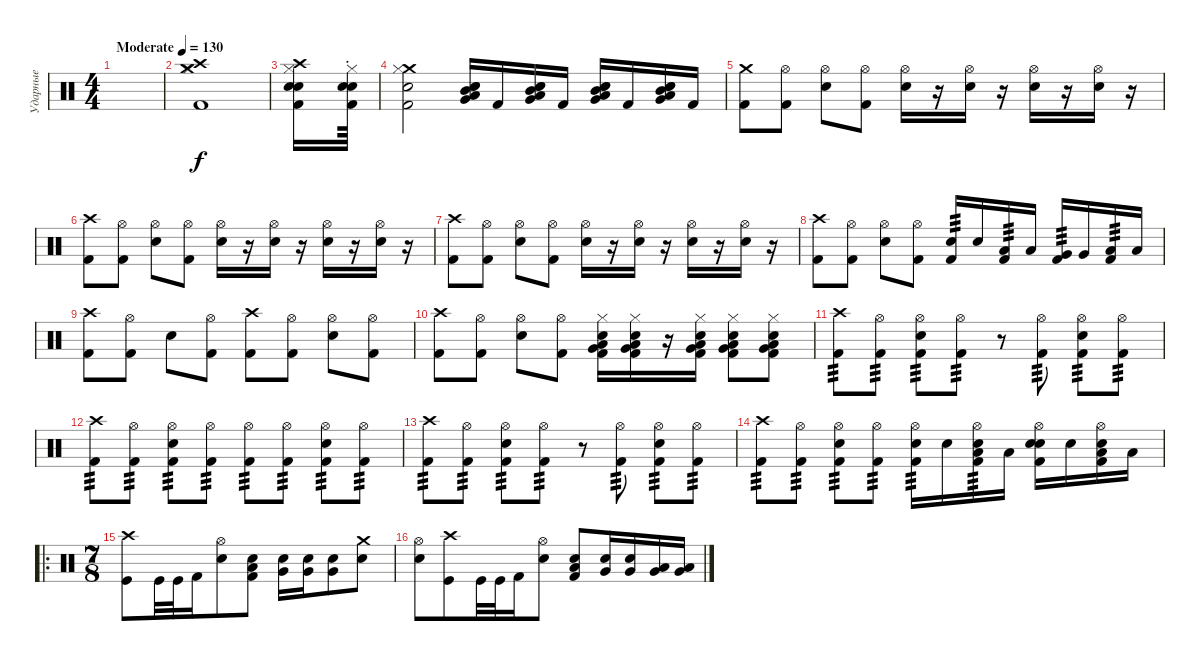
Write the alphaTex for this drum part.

\track ("Ударные" "Ударные") {instrument percussion}
\staff {score}
\articulation defaults
\ts (4 4)
\tempo (130 "Moderate")
\clef neutral
\ks c
|
("Crash medium (hit)" "Crash high (hit)" "Hi-Hat (closed)" "Kick (hit) 2").1 |
("Crash high (hit)" "Electric Snare (hit)" "Snare (hit) 2" "Hi-Hat (closed)" "Kick (hit) 2").16 ("Electric Snare (hit)"{st} "Snare (hit) 2"{st} "Hi-Hat (closed)"{st} "Kick (hit) 2"{st}).64 |
("Crash medium (hit)" "Snare (hit) 2" "Hi-Hat (closed)" "Kick (hit) 2").2 ("Low Floor Tom (hit)" "Very Low Tom (hit)" "Electric Snare (hit)" "Snare (hit) 2" "Mid Tom (hit)").16 "Kick (hit) 2".16 ("Low Floor Tom (hit)" "Very Low Tom (hit)" "Electric Snare (hit)" "Snare (hit) 2" "Mid Tom (hit)").16 "Kick (hit) 2".16 ("Low Floor Tom (hit)" "Very Low Tom (hit)" "Electric Snare (hit)" "Snare (hit) 2" "Mid Tom (hit)").16 "Kick (hit) 2".16 ("Low Floor Tom (hit)" "Very Low Tom (hit)" "Electric Snare (hit)" "Snare (hit) 2" "Mid Tom (hit)").16 "Kick (hit) 2".16 |
("Crash medium (hit)" "Kick (hit) 2").8 ("Hi-Hat (open)" "Kick (hit) 2").8 ("Hi-Hat (open)" "Snare (hit) 2").8 ("Hi-Hat (open)" "Kick (hit) 2").8 ("Hi-Hat (open)" "Snare (hit) 2").16 r.16 ("Hi-Hat (open)" "Snare (hit) 2").16 r.16 ("Hi-Hat (open)" "Snare (hit) 2").16 r.16 ("Hi-Hat (open)" "Snare (hit) 2").16 r.16 |
("Crash high (hit)" "Kick (hit) 2").8 ("Hi-Hat (open)" "Kick (hit) 2").8 ("Hi-Hat (open)" "Snare (hit) 2").8 ("Hi-Hat (open)" "Kick (hit) 2").8 ("Hi-Hat (open)" "Snare (hit) 2").16 r.16 ("Hi-Hat (open)" "Snare (hit) 2").16 r.16 ("Hi-Hat (open)" "Snare (hit) 2").16 r.16 ("Hi-Hat (open)" "Snare (hit) 2").16 r.16 |
("Crash high (hit)" "Kick (hit) 2").8 ("Hi-Hat (open)" "Kick (hit) 2").8 ("Hi-Hat (open)" "Snare (hit) 2").8 ("Hi-Hat (open)" "Kick (hit) 2").8 ("Hi-Hat (open)" "Snare (hit) 2").16 r.16 ("Hi-Hat (open)" "Snare (hit) 2").16 r.16 ("Hi-Hat (open)" "Snare (hit) 2").16 r.16 ("Hi-Hat (open)" "Snare (hit) 2").16 r.16 |
("Crash high (hit)" "Kick (hit) 2").8 ("Hi-Hat (open)" "Kick (hit) 2").8 ("Hi-Hat (open)" "Snare (hit) 2").8 ("Hi-Hat (open)" "Kick (hit) 2").8 ("Electric Snare (hit)" "Kick (hit) 2").16{tp 3} "Electric Snare (hit)".16 ("Low Tom (hit)" "Kick (hit) 2").16{tp 3} "Low Tom (hit)".16 ("Very Low Tom (hit)" "Kick (hit) 2").16{tp 3} "Very Low Tom (hit)".16 ("Low Floor Tom (hit)" "Kick (hit) 2").16{tp 3} "Low Floor Tom (hit)".16 |
("Crash high (hit)" "Kick (hit) 2").8 ("Hi-Hat (open)" "Kick (hit) 2").8 "Snare (hit) 2".8 ("Hi-Hat (open)" "Kick (hit) 2").8 ("Crash high (hit)" "Kick (hit) 2").8 ("Hi-Hat (open)" "Kick (hit) 2").8 ("Hi-Hat (open)" "Snare (hit) 2").8 ("Hi-Hat (open)" "Kick (hit) 2").8 |
("Crash high (hit)" "Kick (hit) 2").8 ("Hi-Hat (open)" "Kick (hit) 2").8 ("Hi-Hat (open)" "Snare (hit) 2").8 ("Hi-Hat (open)" "Kick (hit) 2").8 ("Very Low Tom (hit)" "Low Floor Tom (hit)" "Snare (hit) 2" "Hi-Hat (closed)" "Kick (hit) 2").16 ("Very Low Tom (hit)" "Low Floor Tom (hit)" "Snare (hit) 2" "Hi-Hat (closed)" "Kick (hit) 2").16 r.16 ("Very Low Tom (hit)" "Low Floor Tom (hit)" "Snare (hit) 2" "Hi-Hat (closed)" "Kick (hit) 2").16 ("Very Low Tom (hit)" "Low Floor Tom (hit)" "Snare (hit) 2" "Hi-Hat (closed)" "Kick (hit) 2").8 ("Very Low Tom (hit)" "Low Floor Tom (hit)" "Snare (hit) 2" "Hi-Hat (closed)" "Kick (hit) 2").8 |
("Crash high (hit)" "Kick (hit) 2").8{tp 3} ("Hi-Hat (open)" "Kick (hit) 2").8{tp 3} ("Hi-Hat (open)" "Snare (hit) 2" "Kick (hit) 2").8{tp 3} ("Hi-Hat (open)" "Kick (hit) 2").8{tp 3} r.8 ("Hi-Hat (open)" "Kick (hit) 2").8{tp 3} ("Hi-Hat (open)" "Snare (hit) 2" "Kick (hit) 2").8{tp 3} ("Hi-Hat (open)" "Kick (hit) 2").8{tp 3} |
("Crash high (hit)" "Kick (hit) 2").8{tp 3} ("Hi-Hat (open)" "Kick (hit) 2").8{tp 3} ("Hi-Hat (open)" "Snare (hit) 2" "Kick (hit) 2").8{tp 3} ("Hi-Hat (open)" "Kick (hit) 2").8{tp 3} ("Hi-Hat (open)" "Kick (hit) 2").8{tp 3} ("Hi-Hat (open)" "Kick (hit) 2").8{tp 3} ("Hi-Hat (open)" "Snare (hit) 2" "Kick (hit) 2").8{tp 3} ("Hi-Hat (open)" "Kick (hit) 2").8{tp 3} |
("Crash high (hit)" "Kick (hit) 2").8{tp 3} ("Hi-Hat (open)" "Kick (hit) 2").8{tp 3} ("Hi-Hat (open)" "Snare (hit) 2" "Kick (hit) 2").8{tp 3} ("Hi-Hat (open)" "Kick (hit) 2").8{tp 3} r.8 ("Hi-Hat (open)" "Kick (hit) 2").8{tp 3} ("Hi-Hat (open)" "Snare (hit) 2" "Kick (hit) 2").8{tp 3} ("Hi-Hat (open)" "Kick (hit) 2").8{tp 3} |
("Crash high (hit)" "Kick (hit) 2").8{tp 3} ("Hi-Hat (open)" "Kick (hit) 2").8{tp 3} ("Hi-Hat (open)" "Snare (hit) 2" "Kick (hit) 2").8{tp 3} ("Hi-Hat (open)" "Kick (hit) 2").8{tp 3} ("Electric Snare (hit)" "Hi-Hat (open)" "Kick (hit) 2").16{tp 3} "Electric Snare (hit)".16 ("Low Tom (hit)" "Hi-Hat (open)" "Snare (hit) 2" "Kick (hit) 2").16{tp 3} "Low Tom (hit)".16 ("Electric Snare (hit)" "Hi-Hat (open)" "Snare (hit) 2" "Kick (hit) 2").16 "Electric Snare (hit)".16 ("Low Tom (hit)" "Hi-Hat (open)" "Snare (hit) 2" "Kick (hit) 2").16 "Low Tom (hit)".16 |
\ro
\ts (7 8)
("Crash high (hit)" "Kick (hit)").8 "Kick (hit)".32 "Kick (hit)".32 "Kick (hit) 2".16 ("Hi-Hat (open)" "Electric Snare (hit)").8 ("Low Floor Tom (hit)" "Electric Snare (hit)" "Kick (hit) 2").8 ("Electric Snare (hit)" "Very Low Tom (hit)").16 ("Electric Snare (hit)" "Very Low Tom (hit)").16 ("Electric Snare (hit)" "Very Low Tom (hit)").8 ("Crash medium (hit)" "Electric Snare (hit)").8 |
("Hi-Hat (open)" "Electric Snare (hit)").8 ("Crash high (hit)" "Kick (hit)").8 "Kick (hit)".32 "Kick (hit)".32 "Kick (hit) 2".16 ("Hi-Hat (open)" "Electric Snare (hit)").8 ("Low Floor Tom (hit)" "Electric Snare (hit)" "Kick (hit) 2").8 ("Electric Snare (hit)" "Very Low Tom (hit)").16 ("Electric Snare (hit)" "Very Low Tom (hit)").16 ("Low Tom (hit)" "Very Low Tom (hit)").16 ("Low Tom (hit)" "Very Low Tom (hit)").16
